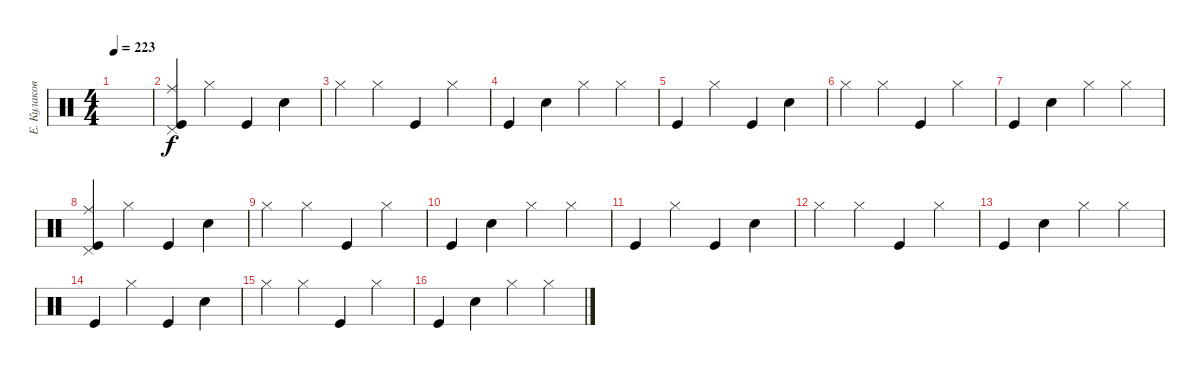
\track ("Е. Кулаков" "Е. Кулаков") {instrument percussion}
\staff {score}
\articulation defaults
\ts (4 4)
\tempo 223
\clef neutral
\ks c
|
("Kick (hit)" "Ride (middle)" "Pedal Hi-Hat (hit)").4 "Hi-Hat (closed)".4 "Kick (hit)".4 "Snare (hit) 2".4 |
"Hi-Hat (closed)".4 "Hi-Hat (closed)".4 "Kick (hit)".4 "Hi-Hat (closed)".4 |
"Kick (hit)".4 "Snare (hit) 2".4 "Hi-Hat (closed)".4 "Hi-Hat (closed)".4 |
"Kick (hit)".4 "Hi-Hat (closed)".4 "Kick (hit)".4 "Snare (hit) 2".4 |
"Hi-Hat (closed)".4 "Hi-Hat (closed)".4 "Kick (hit)".4 "Hi-Hat (closed)".4 |
"Kick (hit)".4 "Snare (hit) 2".4 "Hi-Hat (closed)".4 "Hi-Hat (closed)".4 |
("Kick (hit)" "Ride (middle)" "Pedal Hi-Hat (hit)").4 "Hi-Hat (closed)".4 "Kick (hit)".4 "Snare (hit) 2".4 |
"Hi-Hat (closed)".4 "Hi-Hat (closed)".4 "Kick (hit)".4 "Hi-Hat (closed)".4 |
"Kick (hit)".4 "Snare (hit) 2".4 "Hi-Hat (closed)".4 "Hi-Hat (closed)".4 |
"Kick (hit)".4 "Hi-Hat (closed)".4 "Kick (hit)".4 "Snare (hit) 2".4 |
"Hi-Hat (closed)".4 "Hi-Hat (closed)".4 "Kick (hit)".4 "Hi-Hat (closed)".4 |
"Kick (hit)".4 "Snare (hit) 2".4 "Hi-Hat (closed)".4 "Hi-Hat (closed)".4 |
"Kick (hit)".4 "Hi-Hat (closed)".4 "Kick (hit)".4 "Snare (hit) 2".4 |
"Hi-Hat (closed)".4 "Hi-Hat (closed)".4 "Kick (hit)".4 "Hi-Hat (closed)".4 |
"Kick (hit)".4 "Snare (hit) 2".4 "Hi-Hat (closed)".4 "Hi-Hat (closed)".4
